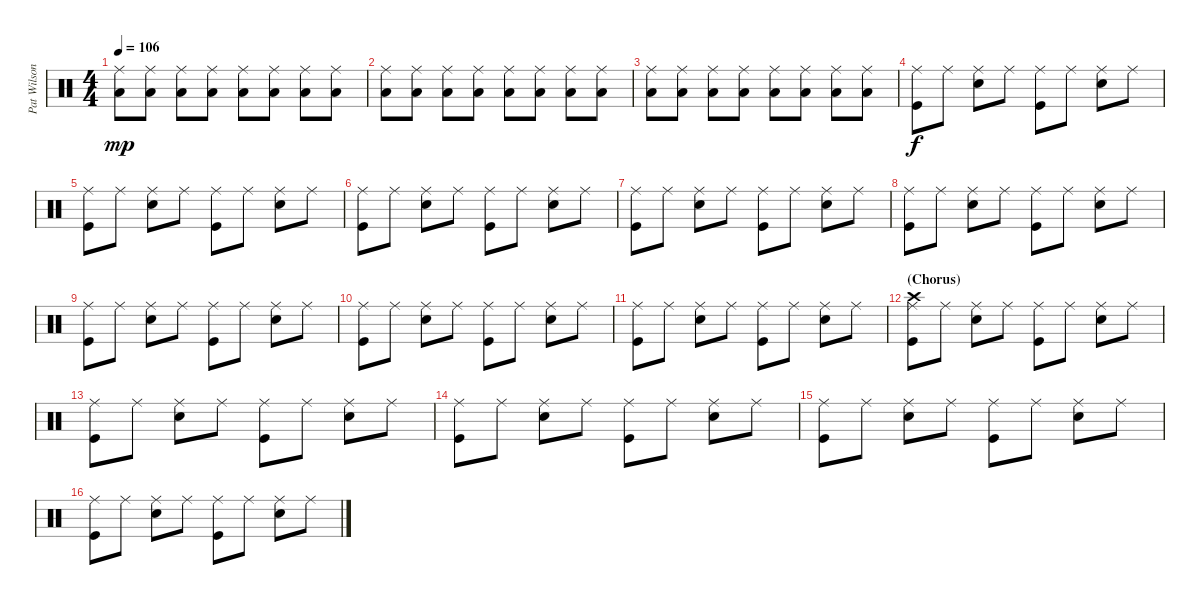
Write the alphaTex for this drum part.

\track ("Pat Wilson" "Pat Wilson") {instrument percussion}
\staff {score}
\articulation defaults
\ts (4 4)
\tempo 106
\clef neutral
\ks c
("Ride (middle)" "Low Floor Tom (hit)").8{dy mp} ("Ride (middle)" "Low Floor Tom (hit)").8 ("Ride (middle)" "Low Tom (hit)").8 ("Ride (middle)" "Low Floor Tom (hit)").8 ("Ride (middle)" "Low Floor Tom (hit)").8 ("Ride (middle)" "Low Floor Tom (hit)").8 ("Ride (middle)" "Low Tom (hit)").8 ("Ride (middle)" "Low Floor Tom (hit)").8 |
("Ride (middle)" "Low Floor Tom (hit)").8 ("Ride (middle)" "Low Floor Tom (hit)").8 ("Ride (middle)" "Low Tom (hit)").8 ("Ride (middle)" "Low Floor Tom (hit)").8 ("Ride (middle)" "Low Floor Tom (hit)").8 ("Ride (middle)" "Low Floor Tom (hit)").8 ("Ride (middle)" "Low Tom (hit)").8 ("Ride (middle)" "Low Floor Tom (hit)").8 |
("Ride (middle)" "Low Floor Tom (hit)").8 ("Ride (middle)" "Low Floor Tom (hit)").8 ("Ride (middle)" "Low Tom (hit)").8 ("Ride (middle)" "Low Floor Tom (hit)").8 ("Ride (middle)" "Low Floor Tom (hit)").8 ("Ride (middle)" "Low Floor Tom (hit)").8 ("Ride (middle)" "Low Tom (hit)").8 ("Ride (middle)" "Low Floor Tom (hit)").8 |
("Ride (middle)" "Kick (hit)").8{dy f} "Ride (middle)".8 ("Ride (middle)" "Snare (hit) 2").8 "Ride (middle)".8 ("Ride (middle)" "Kick (hit)").8 "Ride (middle)".8 ("Ride (middle)" "Snare (hit) 2").8 "Ride (middle)".8 |
("Ride (middle)" "Kick (hit)").8 "Ride (middle)".8 ("Ride (middle)" "Snare (hit) 2").8 "Ride (middle)".8 ("Ride (middle)" "Kick (hit)").8 "Ride (middle)".8 ("Ride (middle)" "Snare (hit) 2").8 "Ride (middle)".8 |
("Ride (middle)" "Kick (hit)").8 "Ride (middle)".8 ("Ride (middle)" "Snare (hit) 2").8 "Ride (middle)".8 ("Ride (middle)" "Kick (hit)").8 "Ride (middle)".8 ("Ride (middle)" "Snare (hit) 2").8 "Ride (middle)".8 |
("Ride (middle)" "Kick (hit)").8 "Ride (middle)".8 ("Ride (middle)" "Snare (hit) 2").8 "Ride (middle)".8 ("Ride (middle)" "Kick (hit)").8 "Ride (middle)".8 ("Ride (middle)" "Snare (hit) 2").8 "Ride (middle)".8 |
("Ride (middle)" "Kick (hit)").8 "Ride (middle)".8 ("Ride (middle)" "Snare (hit) 2").8 "Ride (middle)".8 ("Ride (middle)" "Kick (hit)").8 "Ride (middle)".8 ("Ride (middle)" "Snare (hit) 2").8 "Ride (middle)".8 |
("Ride (middle)" "Kick (hit)").8 "Ride (middle)".8 ("Ride (middle)" "Snare (hit) 2").8 "Ride (middle)".8 ("Ride (middle)" "Kick (hit)").8 "Ride (middle)".8 ("Ride (middle)" "Snare (hit) 2").8 "Ride (middle)".8 |
("Ride (middle)" "Kick (hit)").8 "Ride (middle)".8 ("Ride (middle)" "Snare (hit) 2").8 "Ride (middle)".8 ("Ride (middle)" "Kick (hit)").8 "Ride (middle)".8 ("Ride (middle)" "Snare (hit) 2").8 "Ride (middle)".8 |
("Ride (middle)" "Kick (hit)").8 "Ride (middle)".8 ("Ride (middle)" "Snare (hit) 2").8 "Ride (middle)".8 ("Ride (middle)" "Kick (hit)").8 "Ride (middle)".8 ("Ride (middle)" "Snare (hit) 2").8 "Ride (middle)".8 |
\section ("" "(Chorus)")
("Crash high (hit)" "Ride (middle)" "Kick (hit)").8 "Ride (middle)".8 ("Ride (middle)" "Snare (hit) 2").8 "Ride (middle)".8 ("Ride (middle)" "Kick (hit)").8 "Ride (middle)".8 ("Ride (middle)" "Snare (hit) 2").8 "Ride (middle)".8 |
("Ride (middle)" "Kick (hit)").8 "Ride (middle)".8 ("Ride (middle)" "Snare (hit) 2").8 "Ride (middle)".8 ("Ride (middle)" "Kick (hit)").8 "Ride (middle)".8 ("Ride (middle)" "Snare (hit) 2").8 "Ride (middle)".8 |
("Ride (middle)" "Kick (hit)").8 "Ride (middle)".8 ("Ride (middle)" "Snare (hit) 2").8 "Ride (middle)".8 ("Ride (middle)" "Kick (hit)").8 "Ride (middle)".8 ("Ride (middle)" "Snare (hit) 2").8 "Ride (middle)".8 |
("Ride (middle)" "Kick (hit)").8 "Ride (middle)".8 ("Ride (middle)" "Snare (hit) 2").8 "Ride (middle)".8 ("Ride (middle)" "Kick (hit)").8 "Ride (middle)".8 ("Ride (middle)" "Snare (hit) 2").8 "Ride (middle)".8 |
("Ride (middle)" "Kick (hit)").8 "Ride (middle)".8 ("Ride (middle)" "Snare (hit) 2").8 "Ride (middle)".8 ("Ride (middle)" "Kick (hit)").8 "Ride (middle)".8 ("Ride (middle)" "Snare (hit) 2").8 "Ride (middle)".8
